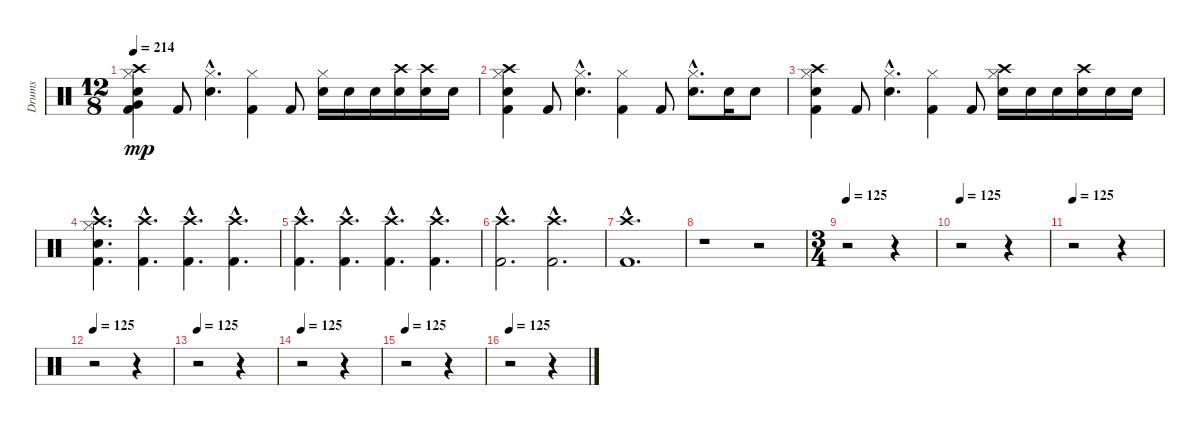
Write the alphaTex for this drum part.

\track ("Drums" "Drums") {instrument percussion}
\staff {score}
\articulation defaults
\ts (12 8)
\tempo 214
\clef neutral
\ks c
("Hi-Hat (closed)" "Very Low Tom (hit)" "Snare (hit) 2" "Crash high (hit)" "Kick (hit) 2").4{dy mp} "Kick (hit) 2".8 ("Hi-Hat (closed)"{hac} "Snare (hit) 2"{hac}).4{d} ("Hi-Hat (closed)" "Kick (hit) 2").4 "Kick (hit) 2".8 ("Hi-Hat (closed)" "Snare (hit) 2").16 "Electric Snare (hit)".16 "Snare (hit) 2".16 ("Electric Snare (hit)" "Crash high (hit)").16 ("Snare (hit) 2" "Crash high (hit)").16 "Electric Snare (hit)".16 |
("Hi-Hat (closed)" "Snare (hit) 2" "Crash high (hit)" "Kick (hit) 2").4 "Kick (hit) 2".8 ("Hi-Hat (closed)"{hac} "Snare (hit) 2"{hac}).4{d} ("Hi-Hat (closed)" "Kick (hit) 2").4 "Kick (hit) 2".8 ("Hi-Hat (closed)"{hac} "Snare (hit) 2"{hac}).8{d} "Snare (hit) 2".16 "Snare (hit) 2".8 |
("Snare (hit) 2" "Hi-Hat (closed)" "Crash high (hit)" "Kick (hit) 2").4 "Kick (hit) 2".8 ("Hi-Hat (closed)"{hac} "Electric Snare (hit)"{hac}).4{d} ("Hi-Hat (closed)" "Kick (hit) 2").4 "Kick (hit) 2".8 ("Hi-Hat (closed)" "Snare (hit) 2" "Crash high (hit)").16 "Electric Snare (hit)".16 "Snare (hit) 2".16 ("Crash high (hit)" "Electric Snare (hit)").16 "Snare (hit) 2".16 "Electric Snare (hit)".16 |
("Snare (hit) 2"{hac} "Hi-Hat (closed)"{hac} "Crash high (hit)"{hac} "Kick (hit) 2"{hac}).4{d} ("Crash high (hit)"{hac} "Kick (hit) 2"{hac}).4{d} ("Crash high (hit)"{hac} "Kick (hit) 2"{hac}).4{d} ("Crash high (hit)"{hac} "Kick (hit) 2"{hac}).4{d} |
("Crash high (hit)"{hac} "Kick (hit) 2"{hac}).4{d} ("Crash high (hit)"{hac} "Kick (hit) 2"{hac}).4{d} ("Crash high (hit)"{hac} "Kick (hit) 2"{hac}).4{d} ("Crash high (hit)"{hac} "Kick (hit) 2"{hac}).4{d} |
("Crash high (hit)"{hac} "Kick (hit) 2"{hac}).2{d} ("Crash high (hit)"{hac} "Kick (hit) 2"{hac}).2{d} |
("Crash high (hit)"{hac} "Kick (hit) 2"{hac}).1{d} |
r.1 r.2 |
\ts (3 4)
\tempo 125
r.2 r.4 |
\tempo 125
r.2 r.4 |
\tempo 125
r.2 r.4 |
\tempo 125
r.2 r.4 |
\tempo 125
r.2 r.4 |
\tempo 125
r.2 r.4 |
\tempo 125
r.2 r.4 |
\tempo 125
r.2 r.4
